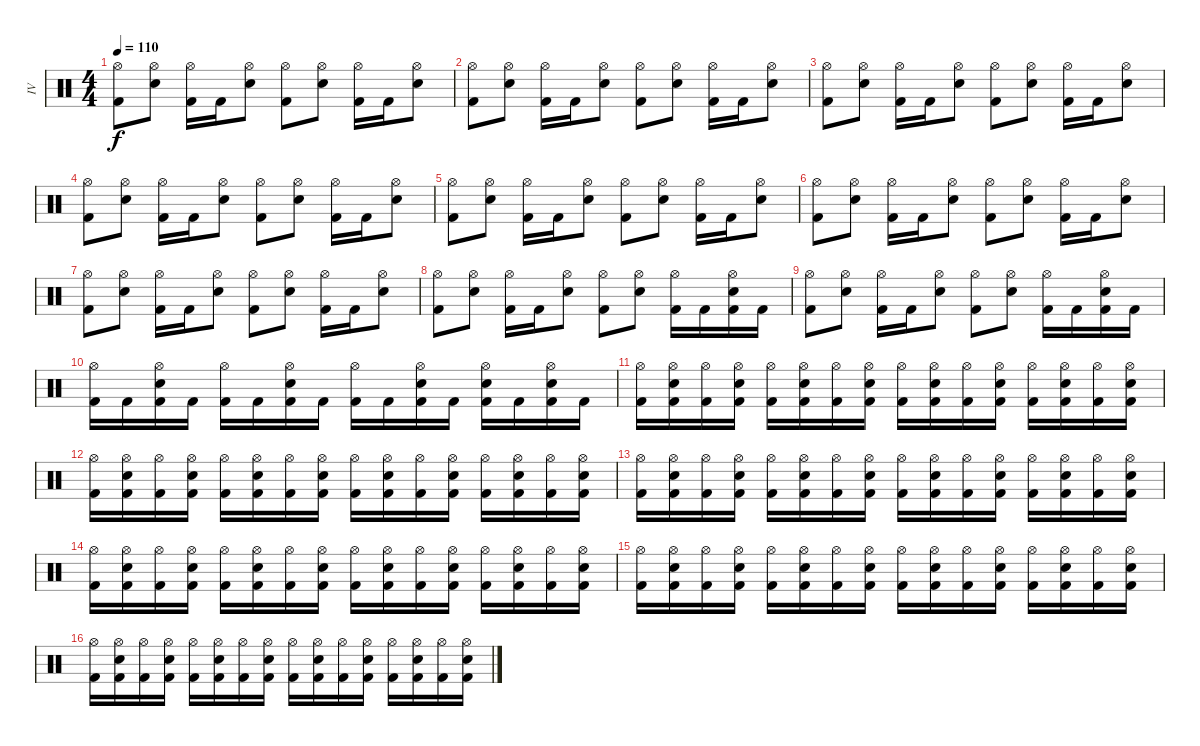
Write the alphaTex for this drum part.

\track ("IV" "IV") {instrument percussion}
\staff {score}
\articulation defaults
\ts (4 4)
\tempo 110
\clef neutral
\ks c
("Hi-Hat (open)" "Kick (hit) 2").8{dy f} ("Hi-Hat (open)" "Snare (hit) 2").8 ("Hi-Hat (open)" "Kick (hit) 2").16 "Kick (hit) 2".16 ("Hi-Hat (open)" "Snare (hit) 2").8 ("Hi-Hat (open)" "Kick (hit) 2").8 ("Hi-Hat (open)" "Snare (hit) 2").8 ("Hi-Hat (open)" "Kick (hit) 2").16 "Kick (hit) 2".16 ("Hi-Hat (open)" "Snare (hit) 2").8 |
("Hi-Hat (open)" "Kick (hit) 2").8 ("Hi-Hat (open)" "Snare (hit) 2").8 ("Hi-Hat (open)" "Kick (hit) 2").16 "Kick (hit) 2".16 ("Hi-Hat (open)" "Snare (hit) 2").8 ("Hi-Hat (open)" "Kick (hit) 2").8 ("Hi-Hat (open)" "Snare (hit) 2").8 ("Hi-Hat (open)" "Kick (hit) 2").16 "Kick (hit) 2".16 ("Hi-Hat (open)" "Snare (hit) 2").8 |
("Hi-Hat (open)" "Kick (hit) 2").8 ("Hi-Hat (open)" "Snare (hit) 2").8 ("Hi-Hat (open)" "Kick (hit) 2").16 "Kick (hit) 2".16 ("Hi-Hat (open)" "Snare (hit) 2").8 ("Hi-Hat (open)" "Kick (hit) 2").8 ("Hi-Hat (open)" "Snare (hit) 2").8 ("Hi-Hat (open)" "Kick (hit) 2").16 "Kick (hit) 2".16 ("Hi-Hat (open)" "Snare (hit) 2").8 |
("Hi-Hat (open)" "Kick (hit) 2").8 ("Hi-Hat (open)" "Snare (hit) 2").8 ("Hi-Hat (open)" "Kick (hit) 2").16 "Kick (hit) 2".16 ("Hi-Hat (open)" "Snare (hit) 2").8 ("Hi-Hat (open)" "Kick (hit) 2").8 ("Hi-Hat (open)" "Snare (hit) 2").8 ("Hi-Hat (open)" "Kick (hit) 2").16 "Kick (hit) 2".16 ("Hi-Hat (open)" "Snare (hit) 2").8 |
("Hi-Hat (open)" "Kick (hit) 2").8 ("Hi-Hat (open)" "Snare (hit) 2").8 ("Hi-Hat (open)" "Kick (hit) 2").16 "Kick (hit) 2".16 ("Hi-Hat (open)" "Snare (hit) 2").8 ("Hi-Hat (open)" "Kick (hit) 2").8 ("Hi-Hat (open)" "Snare (hit) 2").8 ("Hi-Hat (open)" "Kick (hit) 2").16 "Kick (hit) 2".16 ("Hi-Hat (open)" "Snare (hit) 2").8 |
("Hi-Hat (open)" "Kick (hit) 2").8 ("Hi-Hat (open)" "Snare (hit) 2").8 ("Hi-Hat (open)" "Kick (hit) 2").16 "Kick (hit) 2".16 ("Hi-Hat (open)" "Snare (hit) 2").8 ("Hi-Hat (open)" "Kick (hit) 2").8 ("Hi-Hat (open)" "Snare (hit) 2").8 ("Hi-Hat (open)" "Kick (hit) 2").16 "Kick (hit) 2".16 ("Hi-Hat (open)" "Snare (hit) 2").8 |
("Hi-Hat (open)" "Kick (hit) 2").8 ("Hi-Hat (open)" "Snare (hit) 2").8 ("Hi-Hat (open)" "Kick (hit) 2").16 "Kick (hit) 2".16 ("Hi-Hat (open)" "Snare (hit) 2").8 ("Hi-Hat (open)" "Kick (hit) 2").8 ("Hi-Hat (open)" "Snare (hit) 2").8 ("Hi-Hat (open)" "Kick (hit) 2").16 "Kick (hit) 2".16 ("Hi-Hat (open)" "Snare (hit) 2").8 |
("Hi-Hat (open)" "Kick (hit) 2").8 ("Hi-Hat (open)" "Snare (hit) 2").8 ("Hi-Hat (open)" "Kick (hit) 2").16 "Kick (hit) 2".16 ("Hi-Hat (open)" "Snare (hit) 2").8 ("Hi-Hat (open)" "Kick (hit) 2").8 ("Hi-Hat (open)" "Snare (hit) 2").8 ("Hi-Hat (open)" "Kick (hit) 2").16 "Kick (hit) 2".16 ("Hi-Hat (open)" "Snare (hit) 2" "Kick (hit) 2").16 "Kick (hit) 2".16 |
("Hi-Hat (open)" "Kick (hit) 2").8 ("Hi-Hat (open)" "Snare (hit) 2").8 ("Hi-Hat (open)" "Kick (hit) 2").16 "Kick (hit) 2".16 ("Hi-Hat (open)" "Snare (hit) 2").8 ("Hi-Hat (open)" "Kick (hit) 2").8 ("Hi-Hat (open)" "Snare (hit) 2").8 ("Hi-Hat (open)" "Kick (hit) 2").16 "Kick (hit) 2".16 ("Hi-Hat (open)" "Snare (hit) 2" "Kick (hit) 2").16 "Kick (hit) 2".16 |
("Hi-Hat (open)" "Kick (hit) 2").16 "Kick (hit) 2".16 ("Hi-Hat (open)" "Snare (hit) 2" "Kick (hit) 2").16 "Kick (hit) 2".16 ("Hi-Hat (open)" "Kick (hit) 2").16 "Kick (hit) 2".16 ("Hi-Hat (open)" "Snare (hit) 2" "Kick (hit) 2").16 "Kick (hit) 2".16 ("Hi-Hat (open)" "Kick (hit) 2").16 "Kick (hit) 2".16 ("Hi-Hat (open)" "Snare (hit) 2" "Kick (hit) 2").16 "Kick (hit) 2".16 ("Hi-Hat (open)" "Snare (hit) 2" "Kick (hit) 2").16 "Kick (hit) 2".16 ("Hi-Hat (open)" "Snare (hit) 2" "Kick (hit) 2").16 "Kick (hit) 2".16 |
("Hi-Hat (open)" "Kick (hit) 2").16 ("Hi-Hat (open)" "Snare (hit) 2" "Kick (hit) 2").16 ("Hi-Hat (open)" "Kick (hit) 2").16 ("Hi-Hat (open)" "Snare (hit) 2" "Kick (hit) 2").16 ("Hi-Hat (open)" "Kick (hit) 2").16 ("Hi-Hat (open)" "Snare (hit) 2" "Kick (hit) 2").16 ("Hi-Hat (open)" "Kick (hit) 2").16 ("Hi-Hat (open)" "Snare (hit) 2" "Kick (hit) 2").16 ("Hi-Hat (open)" "Kick (hit) 2").16 ("Hi-Hat (open)" "Snare (hit) 2" "Kick (hit) 2").16 ("Hi-Hat (open)" "Kick (hit) 2").16 ("Hi-Hat (open)" "Snare (hit) 2" "Kick (hit) 2").16 ("Hi-Hat (open)" "Kick (hit) 2").16 ("Hi-Hat (open)" "Snare (hit) 2" "Kick (hit) 2").16 ("Hi-Hat (open)" "Kick (hit) 2").16 ("Hi-Hat (open)" "Snare (hit) 2" "Kick (hit) 2").16 |
("Hi-Hat (open)" "Kick (hit) 2").16 ("Hi-Hat (open)" "Snare (hit) 2" "Kick (hit) 2").16 ("Hi-Hat (open)" "Kick (hit) 2").16 ("Hi-Hat (open)" "Snare (hit) 2" "Kick (hit) 2").16 ("Hi-Hat (open)" "Kick (hit) 2").16 ("Hi-Hat (open)" "Snare (hit) 2" "Kick (hit) 2").16 ("Hi-Hat (open)" "Kick (hit) 2").16 ("Hi-Hat (open)" "Snare (hit) 2" "Kick (hit) 2").16 ("Hi-Hat (open)" "Kick (hit) 2").16 ("Hi-Hat (open)" "Snare (hit) 2" "Kick (hit) 2").16 ("Hi-Hat (open)" "Kick (hit) 2").16 ("Hi-Hat (open)" "Snare (hit) 2" "Kick (hit) 2").16 ("Hi-Hat (open)" "Kick (hit) 2").16 ("Hi-Hat (open)" "Snare (hit) 2" "Kick (hit) 2").16 ("Hi-Hat (open)" "Kick (hit) 2").16 ("Hi-Hat (open)" "Snare (hit) 2" "Kick (hit) 2").16 |
("Hi-Hat (open)" "Kick (hit) 2").16 ("Hi-Hat (open)" "Snare (hit) 2" "Kick (hit) 2").16 ("Hi-Hat (open)" "Kick (hit) 2").16 ("Hi-Hat (open)" "Snare (hit) 2" "Kick (hit) 2").16 ("Hi-Hat (open)" "Kick (hit) 2").16 ("Hi-Hat (open)" "Snare (hit) 2" "Kick (hit) 2").16 ("Hi-Hat (open)" "Kick (hit) 2").16 ("Hi-Hat (open)" "Snare (hit) 2" "Kick (hit) 2").16 ("Hi-Hat (open)" "Kick (hit) 2").16 ("Hi-Hat (open)" "Snare (hit) 2" "Kick (hit) 2").16 ("Hi-Hat (open)" "Kick (hit) 2").16 ("Hi-Hat (open)" "Snare (hit) 2" "Kick (hit) 2").16 ("Hi-Hat (open)" "Kick (hit) 2").16 ("Hi-Hat (open)" "Snare (hit) 2" "Kick (hit) 2").16 ("Hi-Hat (open)" "Kick (hit) 2").16 ("Hi-Hat (open)" "Snare (hit) 2" "Kick (hit) 2").16 |
("Hi-Hat (open)" "Kick (hit) 2").16 ("Hi-Hat (open)" "Snare (hit) 2" "Kick (hit) 2").16 ("Hi-Hat (open)" "Kick (hit) 2").16 ("Hi-Hat (open)" "Snare (hit) 2" "Kick (hit) 2").16 ("Hi-Hat (open)" "Kick (hit) 2").16 ("Hi-Hat (open)" "Snare (hit) 2" "Kick (hit) 2").16 ("Hi-Hat (open)" "Kick (hit) 2").16 ("Hi-Hat (open)" "Snare (hit) 2" "Kick (hit) 2").16 ("Hi-Hat (open)" "Kick (hit) 2").16 ("Hi-Hat (open)" "Snare (hit) 2" "Kick (hit) 2").16 ("Hi-Hat (open)" "Kick (hit) 2").16 ("Hi-Hat (open)" "Snare (hit) 2" "Kick (hit) 2").16 ("Hi-Hat (open)" "Kick (hit) 2").16 ("Hi-Hat (open)" "Snare (hit) 2" "Kick (hit) 2").16 ("Hi-Hat (open)" "Kick (hit) 2").16 ("Hi-Hat (open)" "Snare (hit) 2" "Kick (hit) 2").16 |
("Hi-Hat (open)" "Kick (hit) 2").16 ("Hi-Hat (open)" "Snare (hit) 2" "Kick (hit) 2").16 ("Hi-Hat (open)" "Kick (hit) 2").16 ("Hi-Hat (open)" "Snare (hit) 2" "Kick (hit) 2").16 ("Hi-Hat (open)" "Kick (hit) 2").16 ("Hi-Hat (open)" "Snare (hit) 2" "Kick (hit) 2").16 ("Hi-Hat (open)" "Kick (hit) 2").16 ("Hi-Hat (open)" "Snare (hit) 2" "Kick (hit) 2").16 ("Hi-Hat (open)" "Kick (hit) 2").16 ("Hi-Hat (open)" "Snare (hit) 2" "Kick (hit) 2").16 ("Hi-Hat (open)" "Kick (hit) 2").16 ("Hi-Hat (open)" "Snare (hit) 2" "Kick (hit) 2").16 ("Hi-Hat (open)" "Kick (hit) 2").16 ("Hi-Hat (open)" "Snare (hit) 2" "Kick (hit) 2").16 ("Hi-Hat (open)" "Kick (hit) 2").16 ("Hi-Hat (open)" "Snare (hit) 2" "Kick (hit) 2").16 |
("Hi-Hat (open)" "Kick (hit) 2").16 ("Hi-Hat (open)" "Snare (hit) 2" "Kick (hit) 2").16 ("Hi-Hat (open)" "Kick (hit) 2").16 ("Hi-Hat (open)" "Snare (hit) 2" "Kick (hit) 2").16 ("Hi-Hat (open)" "Kick (hit) 2").16 ("Hi-Hat (open)" "Snare (hit) 2" "Kick (hit) 2").16 ("Hi-Hat (open)" "Kick (hit) 2").16 ("Hi-Hat (open)" "Snare (hit) 2" "Kick (hit) 2").16 ("Hi-Hat (open)" "Kick (hit) 2").16 ("Hi-Hat (open)" "Snare (hit) 2" "Kick (hit) 2").16 ("Hi-Hat (open)" "Kick (hit) 2").16 ("Hi-Hat (open)" "Snare (hit) 2" "Kick (hit) 2").16 ("Hi-Hat (open)" "Kick (hit) 2").16 ("Hi-Hat (open)" "Snare (hit) 2" "Kick (hit) 2").16 ("Hi-Hat (open)" "Kick (hit) 2").16 ("Hi-Hat (open)" "Snare (hit) 2" "Kick (hit) 2").16
